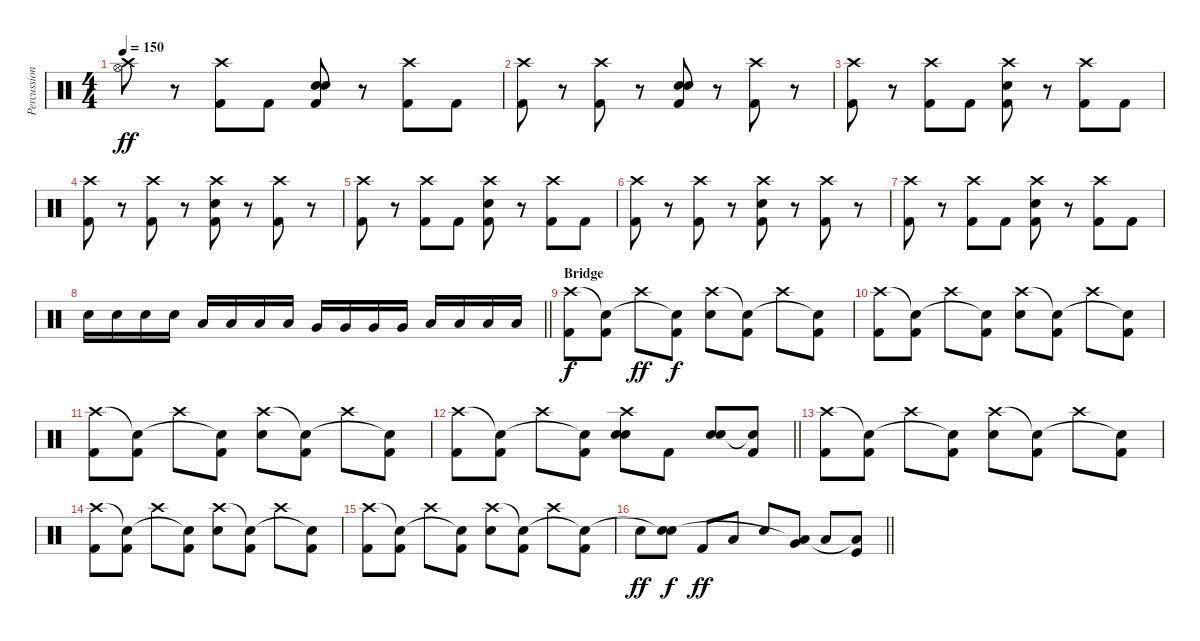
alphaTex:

\track ("Percussion" "Percussion") {instrument percussion}
\staff {score}
\articulation defaults
\ts (4 4)
\tempo 150
\clef neutral
\ks c
("Hi-Hat (open)" "Crash high (hit)").8{dy ff} r.8 ("Kick (hit) 2" "Crash high (hit)").8 "Kick (hit) 2".8 ("Kick (hit) 2" "Snare (hit) 2" "Hand Clap (hit)").8 r.8 ("Kick (hit) 2" "Crash high (hit)").8 "Kick (hit) 2".8 |
("Kick (hit) 2" "Crash high (hit)").8 r.8 ("Kick (hit) 2" "Crash high (hit)").8 r.8 ("Kick (hit) 2" "Snare (hit) 2" "Hand Clap (hit)").8 r.8 ("Kick (hit) 2" "Crash high (hit)").8 r.8 |
("Kick (hit) 2" "Crash high (hit)").8 r.8 ("Kick (hit) 2" "Crash high (hit)").8 "Kick (hit) 2".8 ("Kick (hit) 2" "Snare (hit) 2" "Crash high (hit)").8 r.8 ("Kick (hit) 2" "Crash high (hit)").8 "Kick (hit) 2".8 |
("Kick (hit) 2" "Crash high (hit)").8 r.8 ("Kick (hit) 2" "Crash high (hit)").8 r.8 ("Kick (hit) 2" "Snare (hit) 2" "Crash high (hit)").8 r.8 ("Kick (hit) 2" "Crash high (hit)").8 r.8 |
("Kick (hit) 2" "Crash high (hit)").8 r.8 ("Kick (hit) 2" "Crash high (hit)").8 "Kick (hit) 2".8 ("Kick (hit) 2" "Snare (hit) 2" "Crash high (hit)").8 r.8 ("Kick (hit) 2" "Crash high (hit)").8 "Kick (hit) 2".8 |
("Kick (hit) 2" "Crash high (hit)").8 r.8 ("Kick (hit) 2" "Crash high (hit)").8 r.8 ("Kick (hit) 2" "Snare (hit) 2" "Crash high (hit)").8 r.8 ("Kick (hit) 2" "Crash high (hit)").8 r.8 |
("Kick (hit) 2" "Crash high (hit)").8 r.8 ("Kick (hit) 2" "Crash high (hit)").8 "Kick (hit) 2".8 ("Kick (hit) 2" "Snare (hit) 2" "Crash high (hit)").8 r.8 ("Kick (hit) 2" "Crash high (hit)").8 "Kick (hit) 2".8 |
\barLineRight lightlight "Snare (hit) 2".16 "Snare (hit) 2".16 "Snare (hit) 2".16 "Snare (hit) 2".16 "Low Tom (hit)".16 "Low Tom (hit)".16 "Low Tom (hit)".16 "Low Tom (hit)".16 "Very Low Tom (hit)".16 "Very Low Tom (hit)".16 "Very Low Tom (hit)".16 "Very Low Tom (hit)".16 "Low Floor Tom (hit)".16 "Low Floor Tom (hit)".16 "Low Floor Tom (hit)".16 "Low Floor Tom (hit)".16
|
\section ("" "Bridge")
("Kick (hit) 2" "Crash high (hit)").8{dy f} ("Kick (hit) 2" "Snare (hit)"{t}).8 "Crash high (hit)".8{dy ff} ("Kick (hit) 2" "Snare (hit)"{t}).8{dy f} ("Snare (hit) 2" "Crash high (hit)").8 ("Kick (hit) 2" "Snare (hit)"{t}).8 "Crash high (hit)".8 ("Kick (hit) 2" "Snare (hit)"{t}).8 |
("Kick (hit) 2" "Crash high (hit)").8 ("Kick (hit) 2" "Snare (hit)"{t}).8 "Crash high (hit)".8 ("Kick (hit) 2" "Snare (hit)"{t}).8 ("Snare (hit) 2" "Crash high (hit)").8 ("Kick (hit) 2" "Snare (hit)"{t}).8 "Crash high (hit)".8 ("Kick (hit) 2" "Snare (hit)"{t}).8 |
("Kick (hit) 2" "Crash high (hit)").8 ("Kick (hit) 2" "Snare (hit)"{t}).8 "Crash high (hit)".8 ("Kick (hit) 2" "Snare (hit)"{t}).8 ("Snare (hit) 2" "Crash high (hit)").8 ("Kick (hit) 2" "Snare (hit)"{t}).8 "Crash high (hit)".8 ("Kick (hit) 2" "Snare (hit)"{t}).8 |
\barLineRight lightlight
("Kick (hit) 2" "Crash high (hit)").8 ("Kick (hit) 2" "Snare (hit)"{t}).8 "Crash high (hit)".8 ("Kick (hit) 2" "Snare (hit)"{t}).8 ("Snare (hit) 2" "Electric Snare (hit)" "Crash high (hit)").8 "Kick (hit) 2".8 ("Snare (hit) 2" "Electric Snare (hit)").8 ("Kick (hit) 2" "Snare (hit)"{t}).8 |
("Kick (hit) 2" "Crash high (hit)").8 ("Kick (hit) 2" "Snare (hit)"{t}).8 "Crash high (hit)".8 ("Kick (hit) 2" "Snare (hit)"{t}).8 ("Snare (hit) 2" "Crash high (hit)").8 ("Kick (hit) 2" "Snare (hit)"{t}).8 "Crash high (hit)".8 ("Kick (hit) 2" "Snare (hit)"{t}).8 |
("Kick (hit) 2" "Crash high (hit)").8 ("Kick (hit) 2" "Snare (hit)"{t}).8 "Crash high (hit)".8 ("Kick (hit) 2" "Snare (hit)"{t}).8 ("Snare (hit) 2" "Crash high (hit)").8 ("Kick (hit) 2" "Snare (hit)"{t}).8 "Crash high (hit)".8 ("Kick (hit) 2" "Snare (hit)"{t}).8 |
("Kick (hit) 2" "Crash high (hit)").8 ("Kick (hit) 2" "Snare (hit)"{t}).8 "Crash high (hit)".8 ("Kick (hit) 2" "Snare (hit)"{t}).8 ("Snare (hit) 2" "Crash high (hit)").8 ("Kick (hit) 2" "Snare (hit)"{t}).8 "Crash high (hit)".8 ("Kick (hit) 2" "Snare (hit)"{t}).8 |
\barLineRight lightlight "Snare (hit) 2".8{dy ff}
("Snare (hit) 2" "Snare (hit)"{t}).8{dy f} "Kick (hit) 2".8{dy ff} "Low Tom (hit)".8 "Snare (hit) 2".8 ("Very Low Tom (hit)" "Low Tom (hit)"{t}).8 "Low Floor Tom (hit)".8 ("Kick (hit)" "Low Tom (hit)"{t}).8
